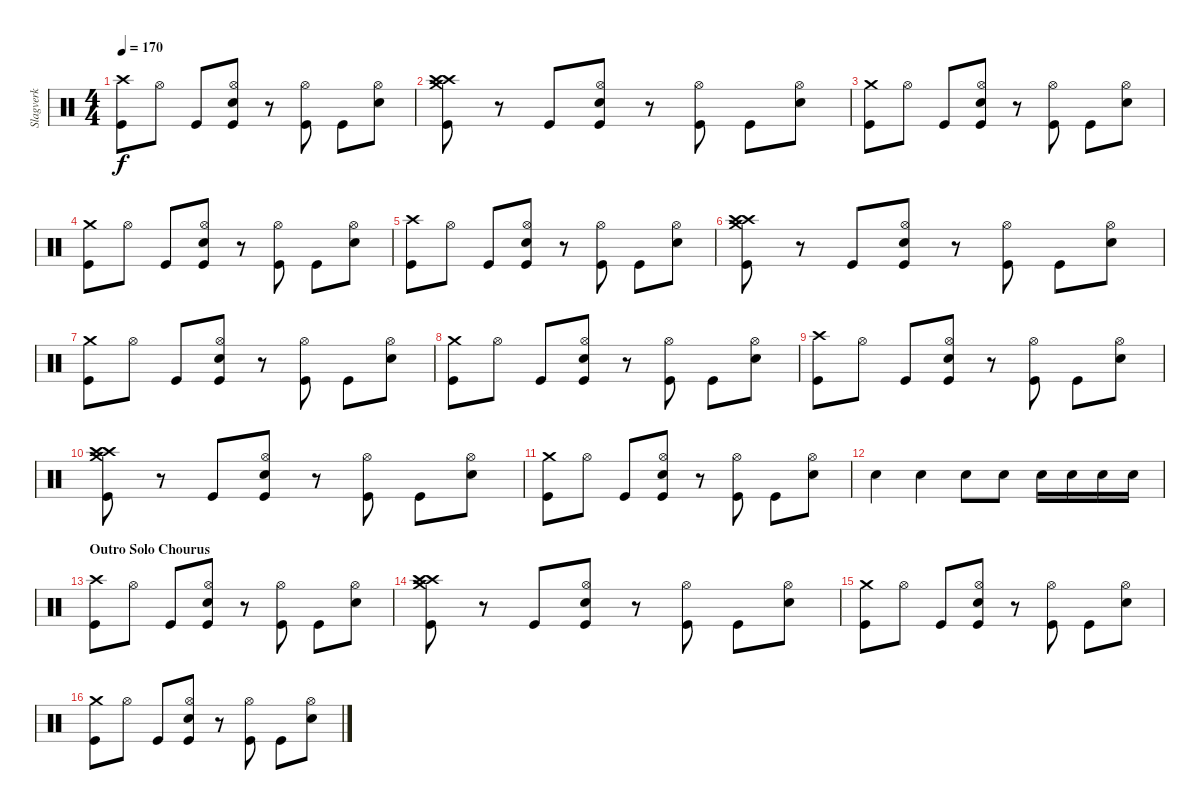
\track ("Slagverk" "Slagverk") {instrument percussion}
\staff {score}
\articulation defaults
\ts (4 4)
\tempo 170
\clef neutral
\ks c
("Crash high (hit)" "Kick (hit)").8{dy f} "Hi-Hat (open)".8 "Kick (hit)".8 ("Hi-Hat (open)" "Snare (hit) 2" "Kick (hit)").8 r.8 ("Hi-Hat (open)" "Kick (hit)").8 "Kick (hit)".8 ("Hi-Hat (open)" "Snare (hit) 2").8 |
("Crash high (hit)" "Crash high (hit)" "Crash medium (hit)" "Kick (hit)").8 r.8 "Kick (hit)".8 ("Hi-Hat (open)" "Snare (hit) 2" "Kick (hit)").8 r.8 ("Hi-Hat (open)" "Kick (hit)").8 "Kick (hit)".8 ("Hi-Hat (open)" "Snare (hit) 2").8 |
("Crash medium (hit)" "Kick (hit)").8 "Hi-Hat (open)".8 "Kick (hit)".8 ("Hi-Hat (open)" "Snare (hit) 2" "Kick (hit)").8 r.8 ("Hi-Hat (open)" "Kick (hit)").8 "Kick (hit)".8 ("Hi-Hat (open)" "Snare (hit) 2").8 |
("Crash medium (hit)" "Kick (hit)").8 "Hi-Hat (open)".8 "Kick (hit)".8 ("Hi-Hat (open)" "Snare (hit) 2" "Kick (hit)").8 r.8 ("Hi-Hat (open)" "Kick (hit)").8 "Kick (hit)".8 ("Hi-Hat (open)" "Snare (hit) 2").8 |
("Crash high (hit)" "Kick (hit)").8 "Hi-Hat (open)".8 "Kick (hit)".8 ("Hi-Hat (open)" "Snare (hit) 2" "Kick (hit)").8 r.8 ("Hi-Hat (open)" "Kick (hit)").8 "Kick (hit)".8 ("Hi-Hat (open)" "Snare (hit) 2").8 |
("Crash high (hit)" "Crash high (hit)" "Crash medium (hit)" "Kick (hit)").8 r.8 "Kick (hit)".8 ("Hi-Hat (open)" "Snare (hit) 2" "Kick (hit)").8 r.8 ("Hi-Hat (open)" "Kick (hit)").8 "Kick (hit)".8 ("Hi-Hat (open)" "Snare (hit) 2").8 |
("Crash medium (hit)" "Kick (hit)").8 "Hi-Hat (open)".8 "Kick (hit)".8 ("Hi-Hat (open)" "Snare (hit) 2" "Kick (hit)").8 r.8 ("Hi-Hat (open)" "Kick (hit)").8 "Kick (hit)".8 ("Hi-Hat (open)" "Snare (hit) 2").8 |
("Crash medium (hit)" "Kick (hit)").8 "Hi-Hat (open)".8 "Kick (hit)".8 ("Hi-Hat (open)" "Snare (hit) 2" "Kick (hit)").8 r.8 ("Hi-Hat (open)" "Kick (hit)").8 "Kick (hit)".8 ("Hi-Hat (open)" "Snare (hit) 2").8 |
("Crash high (hit)" "Kick (hit)").8 "Hi-Hat (open)".8 "Kick (hit)".8 ("Hi-Hat (open)" "Snare (hit) 2" "Kick (hit)").8 r.8 ("Hi-Hat (open)" "Kick (hit)").8 "Kick (hit)".8 ("Hi-Hat (open)" "Snare (hit) 2").8 |
("Crash high (hit)" "Crash high (hit)" "Crash medium (hit)" "Kick (hit)").8 r.8 "Kick (hit)".8 ("Hi-Hat (open)" "Snare (hit) 2" "Kick (hit)").8 r.8 ("Hi-Hat (open)" "Kick (hit)").8 "Kick (hit)".8 ("Hi-Hat (open)" "Snare (hit) 2").8 |
("Crash medium (hit)" "Kick (hit)").8 "Hi-Hat (open)".8 "Kick (hit)".8 ("Hi-Hat (open)" "Snare (hit) 2" "Kick (hit)").8 r.8 ("Hi-Hat (open)" "Kick (hit)").8 "Kick (hit)".8 ("Hi-Hat (open)" "Snare (hit) 2").8 |
"Snare (hit) 2".4 "Snare (hit) 2".4 "Snare (hit) 2".8 "Snare (hit) 2".8 "Snare (hit) 2".16 "Snare (hit) 2".16 "Snare (hit) 2".16 "Snare (hit) 2".16 |
\section ("" "Outro Solo Chourus")
("Crash high (hit)" "Kick (hit)").8 "Hi-Hat (open)".8 "Kick (hit)".8 ("Hi-Hat (open)" "Snare (hit) 2" "Kick (hit)").8 r.8 ("Hi-Hat (open)" "Kick (hit)").8 "Kick (hit)".8 ("Hi-Hat (open)" "Snare (hit) 2").8 |
("Crash high (hit)" "Crash high (hit)" "Crash medium (hit)" "Kick (hit)").8 r.8 "Kick (hit)".8 ("Hi-Hat (open)" "Snare (hit) 2" "Kick (hit)").8 r.8 ("Hi-Hat (open)" "Kick (hit)").8 "Kick (hit)".8 ("Hi-Hat (open)" "Snare (hit) 2").8 |
("Crash medium (hit)" "Kick (hit)").8 "Hi-Hat (open)".8 "Kick (hit)".8 ("Hi-Hat (open)" "Snare (hit) 2" "Kick (hit)").8 r.8 ("Hi-Hat (open)" "Kick (hit)").8 "Kick (hit)".8 ("Hi-Hat (open)" "Snare (hit) 2").8 |
("Crash medium (hit)" "Kick (hit)").8 "Hi-Hat (open)".8 "Kick (hit)".8 ("Hi-Hat (open)" "Snare (hit) 2" "Kick (hit)").8 r.8 ("Hi-Hat (open)" "Kick (hit)").8 "Kick (hit)".8 ("Hi-Hat (open)" "Snare (hit) 2").8
